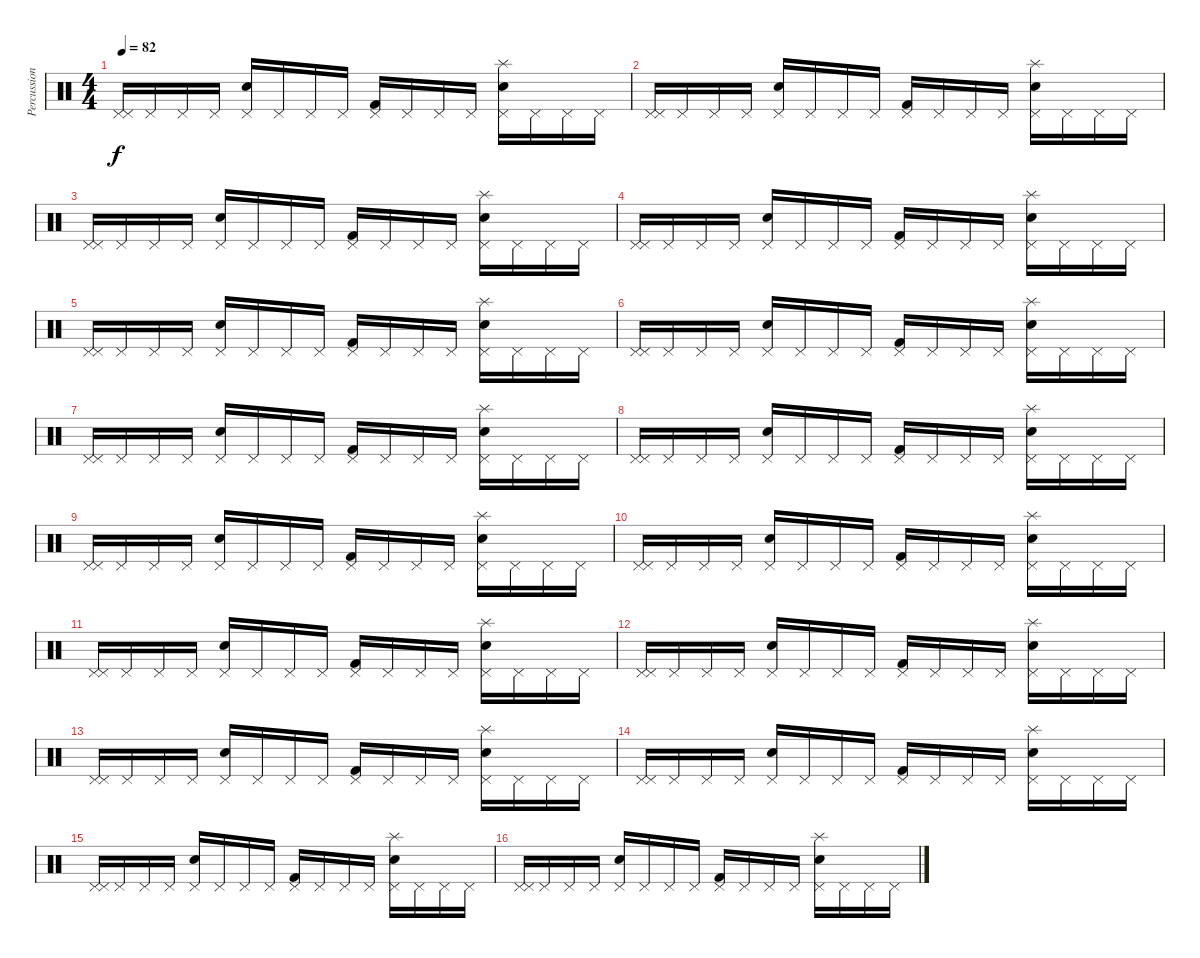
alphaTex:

\track ("Percussion" "Percussion") {instrument percussion}
\staff {score}
\articulation defaults
\ts (4 4)
\tempo 82
\clef neutral
\ks c
("Pedal Hi-Hat (hit)" "Pedal Hi-Hat (hit)").16{dy f} "Pedal Hi-Hat (hit)".16 "Pedal Hi-Hat (hit)".16 "Pedal Hi-Hat (hit)".16 ("Electric Snare (hit)" "Pedal Hi-Hat (hit)").16 "Pedal Hi-Hat (hit)".16 "Pedal Hi-Hat (hit)".16 "Pedal Hi-Hat (hit)".16 ("Kick (hit) 2" "Pedal Hi-Hat (hit)").16 "Pedal Hi-Hat (hit)".16 "Pedal Hi-Hat (hit)".16 "Pedal Hi-Hat (hit)".16 ("Splash (hit)" "Electric Snare (hit)" "Pedal Hi-Hat (hit)").16 "Pedal Hi-Hat (hit)".16 "Pedal Hi-Hat (hit)".16 "Pedal Hi-Hat (hit)".16 |
("Pedal Hi-Hat (hit)" "Pedal Hi-Hat (hit)").16 "Pedal Hi-Hat (hit)".16 "Pedal Hi-Hat (hit)".16 "Pedal Hi-Hat (hit)".16 ("Electric Snare (hit)" "Pedal Hi-Hat (hit)").16 "Pedal Hi-Hat (hit)".16 "Pedal Hi-Hat (hit)".16 "Pedal Hi-Hat (hit)".16 ("Kick (hit) 2" "Pedal Hi-Hat (hit)").16 "Pedal Hi-Hat (hit)".16 "Pedal Hi-Hat (hit)".16 "Pedal Hi-Hat (hit)".16 ("Splash (hit)" "Electric Snare (hit)" "Pedal Hi-Hat (hit)").16 "Pedal Hi-Hat (hit)".16 "Pedal Hi-Hat (hit)".16 "Pedal Hi-Hat (hit)".16 |
("Pedal Hi-Hat (hit)" "Pedal Hi-Hat (hit)").16 "Pedal Hi-Hat (hit)".16 "Pedal Hi-Hat (hit)".16 "Pedal Hi-Hat (hit)".16 ("Electric Snare (hit)" "Pedal Hi-Hat (hit)").16 "Pedal Hi-Hat (hit)".16 "Pedal Hi-Hat (hit)".16 "Pedal Hi-Hat (hit)".16 ("Kick (hit) 2" "Pedal Hi-Hat (hit)").16 "Pedal Hi-Hat (hit)".16 "Pedal Hi-Hat (hit)".16 "Pedal Hi-Hat (hit)".16 ("Splash (hit)" "Electric Snare (hit)" "Pedal Hi-Hat (hit)").16 "Pedal Hi-Hat (hit)".16 "Pedal Hi-Hat (hit)".16 "Pedal Hi-Hat (hit)".16 |
("Pedal Hi-Hat (hit)" "Pedal Hi-Hat (hit)").16 "Pedal Hi-Hat (hit)".16 "Pedal Hi-Hat (hit)".16 "Pedal Hi-Hat (hit)".16 ("Electric Snare (hit)" "Pedal Hi-Hat (hit)").16 "Pedal Hi-Hat (hit)".16 "Pedal Hi-Hat (hit)".16 "Pedal Hi-Hat (hit)".16 ("Kick (hit) 2" "Pedal Hi-Hat (hit)").16 "Pedal Hi-Hat (hit)".16 "Pedal Hi-Hat (hit)".16 "Pedal Hi-Hat (hit)".16 ("Splash (hit)" "Electric Snare (hit)" "Pedal Hi-Hat (hit)").16 "Pedal Hi-Hat (hit)".16 "Pedal Hi-Hat (hit)".16 "Pedal Hi-Hat (hit)".16 |
("Pedal Hi-Hat (hit)" "Pedal Hi-Hat (hit)").16 "Pedal Hi-Hat (hit)".16 "Pedal Hi-Hat (hit)".16 "Pedal Hi-Hat (hit)".16 ("Electric Snare (hit)" "Pedal Hi-Hat (hit)").16 "Pedal Hi-Hat (hit)".16 "Pedal Hi-Hat (hit)".16 "Pedal Hi-Hat (hit)".16 ("Kick (hit) 2" "Pedal Hi-Hat (hit)").16 "Pedal Hi-Hat (hit)".16 "Pedal Hi-Hat (hit)".16 "Pedal Hi-Hat (hit)".16 ("Splash (hit)" "Electric Snare (hit)" "Pedal Hi-Hat (hit)").16 "Pedal Hi-Hat (hit)".16 "Pedal Hi-Hat (hit)".16 "Pedal Hi-Hat (hit)".16 |
("Pedal Hi-Hat (hit)" "Pedal Hi-Hat (hit)").16 "Pedal Hi-Hat (hit)".16 "Pedal Hi-Hat (hit)".16 "Pedal Hi-Hat (hit)".16 ("Electric Snare (hit)" "Pedal Hi-Hat (hit)").16 "Pedal Hi-Hat (hit)".16 "Pedal Hi-Hat (hit)".16 "Pedal Hi-Hat (hit)".16 ("Kick (hit) 2" "Pedal Hi-Hat (hit)").16 "Pedal Hi-Hat (hit)".16 "Pedal Hi-Hat (hit)".16 "Pedal Hi-Hat (hit)".16 ("Splash (hit)" "Electric Snare (hit)" "Pedal Hi-Hat (hit)").16 "Pedal Hi-Hat (hit)".16 "Pedal Hi-Hat (hit)".16 "Pedal Hi-Hat (hit)".16 |
("Pedal Hi-Hat (hit)" "Pedal Hi-Hat (hit)").16 "Pedal Hi-Hat (hit)".16 "Pedal Hi-Hat (hit)".16 "Pedal Hi-Hat (hit)".16 ("Electric Snare (hit)" "Pedal Hi-Hat (hit)").16 "Pedal Hi-Hat (hit)".16 "Pedal Hi-Hat (hit)".16 "Pedal Hi-Hat (hit)".16 ("Kick (hit) 2" "Pedal Hi-Hat (hit)").16 "Pedal Hi-Hat (hit)".16 "Pedal Hi-Hat (hit)".16 "Pedal Hi-Hat (hit)".16 ("Splash (hit)" "Electric Snare (hit)" "Pedal Hi-Hat (hit)").16 "Pedal Hi-Hat (hit)".16 "Pedal Hi-Hat (hit)".16 "Pedal Hi-Hat (hit)".16 |
("Pedal Hi-Hat (hit)" "Pedal Hi-Hat (hit)").16 "Pedal Hi-Hat (hit)".16 "Pedal Hi-Hat (hit)".16 "Pedal Hi-Hat (hit)".16 ("Electric Snare (hit)" "Pedal Hi-Hat (hit)").16 "Pedal Hi-Hat (hit)".16 "Pedal Hi-Hat (hit)".16 "Pedal Hi-Hat (hit)".16 ("Kick (hit) 2" "Pedal Hi-Hat (hit)").16 "Pedal Hi-Hat (hit)".16 "Pedal Hi-Hat (hit)".16 "Pedal Hi-Hat (hit)".16 ("Splash (hit)" "Electric Snare (hit)" "Pedal Hi-Hat (hit)").16 "Pedal Hi-Hat (hit)".16 "Pedal Hi-Hat (hit)".16 "Pedal Hi-Hat (hit)".16 |
("Pedal Hi-Hat (hit)" "Pedal Hi-Hat (hit)").16 "Pedal Hi-Hat (hit)".16 "Pedal Hi-Hat (hit)".16 "Pedal Hi-Hat (hit)".16 ("Electric Snare (hit)" "Pedal Hi-Hat (hit)").16 "Pedal Hi-Hat (hit)".16 "Pedal Hi-Hat (hit)".16 "Pedal Hi-Hat (hit)".16 ("Kick (hit) 2" "Pedal Hi-Hat (hit)").16 "Pedal Hi-Hat (hit)".16 "Pedal Hi-Hat (hit)".16 "Pedal Hi-Hat (hit)".16 ("Splash (hit)" "Electric Snare (hit)" "Pedal Hi-Hat (hit)").16 "Pedal Hi-Hat (hit)".16 "Pedal Hi-Hat (hit)".16 "Pedal Hi-Hat (hit)".16 |
("Pedal Hi-Hat (hit)" "Pedal Hi-Hat (hit)").16 "Pedal Hi-Hat (hit)".16 "Pedal Hi-Hat (hit)".16 "Pedal Hi-Hat (hit)".16 ("Electric Snare (hit)" "Pedal Hi-Hat (hit)").16 "Pedal Hi-Hat (hit)".16 "Pedal Hi-Hat (hit)".16 "Pedal Hi-Hat (hit)".16 ("Kick (hit) 2" "Pedal Hi-Hat (hit)").16 "Pedal Hi-Hat (hit)".16 "Pedal Hi-Hat (hit)".16 "Pedal Hi-Hat (hit)".16 ("Splash (hit)" "Electric Snare (hit)" "Pedal Hi-Hat (hit)").16 "Pedal Hi-Hat (hit)".16 "Pedal Hi-Hat (hit)".16 "Pedal Hi-Hat (hit)".16 |
("Pedal Hi-Hat (hit)" "Pedal Hi-Hat (hit)").16 "Pedal Hi-Hat (hit)".16 "Pedal Hi-Hat (hit)".16 "Pedal Hi-Hat (hit)".16 ("Electric Snare (hit)" "Pedal Hi-Hat (hit)").16 "Pedal Hi-Hat (hit)".16 "Pedal Hi-Hat (hit)".16 "Pedal Hi-Hat (hit)".16 ("Kick (hit) 2" "Pedal Hi-Hat (hit)").16 "Pedal Hi-Hat (hit)".16 "Pedal Hi-Hat (hit)".16 "Pedal Hi-Hat (hit)".16 ("Splash (hit)" "Electric Snare (hit)" "Pedal Hi-Hat (hit)").16 "Pedal Hi-Hat (hit)".16 "Pedal Hi-Hat (hit)".16 "Pedal Hi-Hat (hit)".16 |
("Pedal Hi-Hat (hit)" "Pedal Hi-Hat (hit)").16 "Pedal Hi-Hat (hit)".16 "Pedal Hi-Hat (hit)".16 "Pedal Hi-Hat (hit)".16 ("Electric Snare (hit)" "Pedal Hi-Hat (hit)").16 "Pedal Hi-Hat (hit)".16 "Pedal Hi-Hat (hit)".16 "Pedal Hi-Hat (hit)".16 ("Kick (hit) 2" "Pedal Hi-Hat (hit)").16 "Pedal Hi-Hat (hit)".16 "Pedal Hi-Hat (hit)".16 "Pedal Hi-Hat (hit)".16 ("Splash (hit)" "Electric Snare (hit)" "Pedal Hi-Hat (hit)").16 "Pedal Hi-Hat (hit)".16 "Pedal Hi-Hat (hit)".16 "Pedal Hi-Hat (hit)".16 |
("Pedal Hi-Hat (hit)" "Pedal Hi-Hat (hit)").16 "Pedal Hi-Hat (hit)".16 "Pedal Hi-Hat (hit)".16 "Pedal Hi-Hat (hit)".16 ("Electric Snare (hit)" "Pedal Hi-Hat (hit)").16 "Pedal Hi-Hat (hit)".16 "Pedal Hi-Hat (hit)".16 "Pedal Hi-Hat (hit)".16 ("Kick (hit) 2" "Pedal Hi-Hat (hit)").16 "Pedal Hi-Hat (hit)".16 "Pedal Hi-Hat (hit)".16 "Pedal Hi-Hat (hit)".16 ("Splash (hit)" "Electric Snare (hit)" "Pedal Hi-Hat (hit)").16 "Pedal Hi-Hat (hit)".16 "Pedal Hi-Hat (hit)".16 "Pedal Hi-Hat (hit)".16 |
("Pedal Hi-Hat (hit)" "Pedal Hi-Hat (hit)").16 "Pedal Hi-Hat (hit)".16 "Pedal Hi-Hat (hit)".16 "Pedal Hi-Hat (hit)".16 ("Electric Snare (hit)" "Pedal Hi-Hat (hit)").16 "Pedal Hi-Hat (hit)".16 "Pedal Hi-Hat (hit)".16 "Pedal Hi-Hat (hit)".16 ("Kick (hit) 2" "Pedal Hi-Hat (hit)").16 "Pedal Hi-Hat (hit)".16 "Pedal Hi-Hat (hit)".16 "Pedal Hi-Hat (hit)".16 ("Splash (hit)" "Electric Snare (hit)" "Pedal Hi-Hat (hit)").16 "Pedal Hi-Hat (hit)".16 "Pedal Hi-Hat (hit)".16 "Pedal Hi-Hat (hit)".16 |
("Pedal Hi-Hat (hit)" "Pedal Hi-Hat (hit)").16 "Pedal Hi-Hat (hit)".16 "Pedal Hi-Hat (hit)".16 "Pedal Hi-Hat (hit)".16 ("Electric Snare (hit)" "Pedal Hi-Hat (hit)").16 "Pedal Hi-Hat (hit)".16 "Pedal Hi-Hat (hit)".16 "Pedal Hi-Hat (hit)".16 ("Kick (hit) 2" "Pedal Hi-Hat (hit)").16 "Pedal Hi-Hat (hit)".16 "Pedal Hi-Hat (hit)".16 "Pedal Hi-Hat (hit)".16 ("Splash (hit)" "Electric Snare (hit)" "Pedal Hi-Hat (hit)").16 "Pedal Hi-Hat (hit)".16 "Pedal Hi-Hat (hit)".16 "Pedal Hi-Hat (hit)".16 |
("Pedal Hi-Hat (hit)" "Pedal Hi-Hat (hit)").16 "Pedal Hi-Hat (hit)".16 "Pedal Hi-Hat (hit)".16 "Pedal Hi-Hat (hit)".16 ("Electric Snare (hit)" "Pedal Hi-Hat (hit)").16 "Pedal Hi-Hat (hit)".16 "Pedal Hi-Hat (hit)".16 "Pedal Hi-Hat (hit)".16 ("Kick (hit) 2" "Pedal Hi-Hat (hit)").16 "Pedal Hi-Hat (hit)".16 "Pedal Hi-Hat (hit)".16 "Pedal Hi-Hat (hit)".16 ("Splash (hit)" "Electric Snare (hit)" "Pedal Hi-Hat (hit)").16 "Pedal Hi-Hat (hit)".16 "Pedal Hi-Hat (hit)".16 "Pedal Hi-Hat (hit)".16
